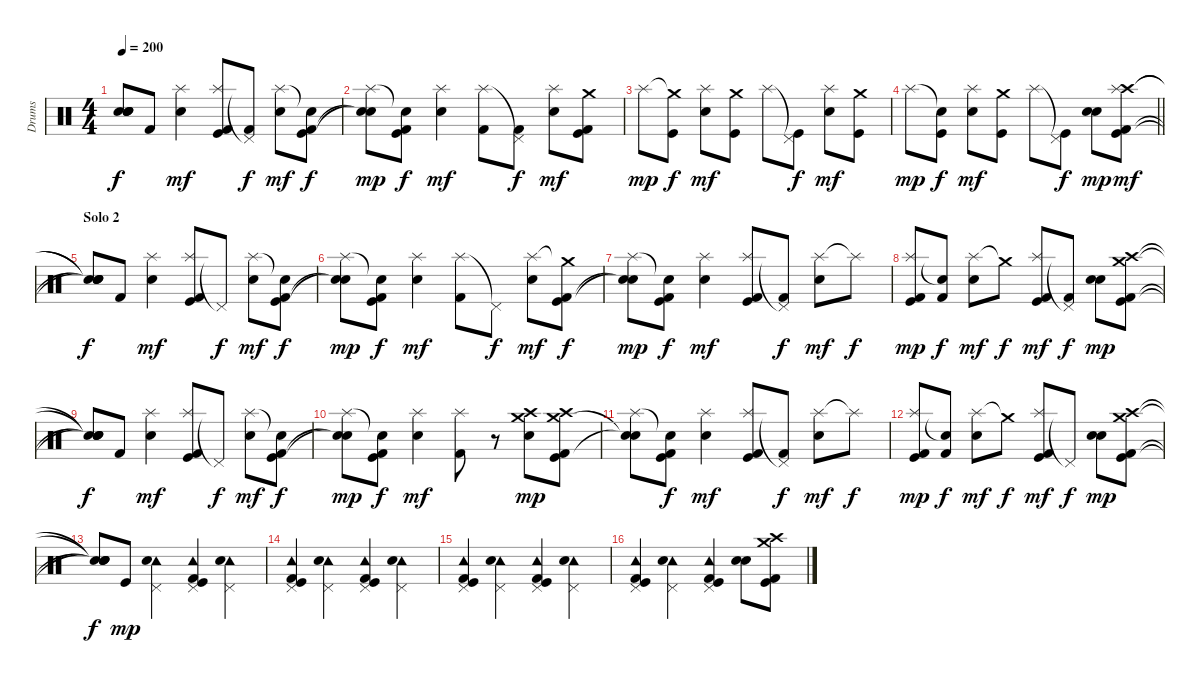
\track ("Drums" "Drums") {instrument percussion}
\staff {score}
\articulation defaults
\ts (4 4)
\tempo 200
\clef neutral
\ks c
("Snare (hit)"{t} "Snare (hit)"{t} "Snare (hit)"{t} "Snare (hit)"{t}).8{dy f} "Kick (hit) 2".8 ("Splash (hit)" "Snare (hit) 2").4{dy mf} ("Splash (hit)" "Kick (hit)" "Kick (hit) 2").8 ("Pedal Hi-Hat (hit)"{t} "Kick (hit) 2").8{dy f} ("Splash (hit)" "Snare (hit) 2").8{dy mf} ("Snare (hit)"{t} "Kick (hit)" "Kick (hit) 2").8{dy f} |
("Splash (hit)" "Snare (hit)"{t} "Snare (hit)"{t}).8{dy mp} ("Snare (hit)"{t} "Kick (hit)" "Kick (hit) 2").8{dy f} ("Splash (hit)" "Snare (hit) 2").4{dy mf} ("Splash (hit)" "Kick (hit) 2").8 ("Pedal Hi-Hat (hit)"{t} "Kick (hit) 2").8{dy f} ("Splash (hit)" "Snare (hit) 2").8{dy mf} ("Crash medium (hit)" "Kick (hit)" "Kick (hit) 2").8 |
"Splash (hit)".8{dy mp} ("Crash medium (hit)"{t} "Kick (hit)").8{dy f} ("Splash (hit)" "Snare (hit) 2").8{dy mf} ("Crash medium (hit)" "Kick (hit)").8 "Splash (hit)".8 ("Pedal Hi-Hat (hit)"{t} "Kick (hit)").8{dy f} ("Splash (hit)" "Snare (hit) 2").8{dy mf} ("Crash medium (hit)" "Kick (hit)").8 |
\barLineRight lightlight "Splash (hit)".8{dy mp}
("Snare (hit)"{t} "Kick (hit)").8{dy f} ("Splash (hit)" "Snare (hit) 2").8{dy mf} ("Crash medium (hit)" "Kick (hit)").8 "Splash (hit)".8 ("Pedal Hi-Hat (hit)"{t} "Kick (hit)").8{dy f} ("Snare (hit) 2" "Electric Snare (hit)").8{dy mp} ("Crash high (hit)" "Splash (hit)" "Kick (hit)" "Kick (hit) 2").8{dy mf} |
\section ("" "Solo 2")
("Snare (hit)"{t} "Snare (hit)"{t} "Snare (hit)"{t} "Snare (hit)"{t}).8{dy f} "Kick (hit) 2".8 ("Splash (hit)" "Snare (hit) 2").4{dy mf} ("Splash (hit)" "Kick (hit)" "Kick (hit) 2").8 "Pedal Hi-Hat (hit)"{t}.8{dy f} ("Splash (hit)" "Snare (hit) 2").8{dy mf} ("Snare (hit)"{t} "Kick (hit)" "Kick (hit) 2").8{dy f} |
("Splash (hit)" "Snare (hit)"{t} "Snare (hit)"{t}).8{dy mp} ("Snare (hit)"{t} "Kick (hit)" "Kick (hit) 2").8{dy f} ("Splash (hit)" "Snare (hit) 2").4{dy mf} ("Splash (hit)" "Kick (hit) 2").8 "Pedal Hi-Hat (hit)"{t}.8{dy f} ("Splash (hit)" "Snare (hit) 2").8{dy mf} ("Crash medium (hit)"{t} "Kick (hit)" "Kick (hit) 2").8{dy f} |
("Splash (hit)" "Snare (hit)"{t} "Snare (hit)"{t}).8{dy mp} ("Snare (hit)"{t} "Kick (hit)" "Kick (hit) 2").8{dy f} ("Splash (hit)" "Snare (hit) 2").4{dy mf} ("Splash (hit)" "Kick (hit)" "Kick (hit) 2").8 ("Pedal Hi-Hat (hit)"{t} "Kick (hit) 2").8{dy f} ("Splash (hit)" "Snare (hit) 2").8{dy mf} "Splash (hit)"{t}.8{dy f} |
("Splash (hit)" "Kick (hit)" "Kick (hit) 2").8{dy mp} ("Snare (hit)"{t} "Kick (hit) 2").8{dy f} ("Splash (hit)" "Snare (hit) 2").8{dy mf} "Crash medium (hit)"{t}.8{dy f} ("Splash (hit)" "Kick (hit)" "Kick (hit) 2").8{dy mf} ("Pedal Hi-Hat (hit)"{t} "Kick (hit) 2").8{dy f} ("Snare (hit) 2" "Electric Snare (hit)").8{dy mp} ("Crash high (hit)" "Crash medium (hit)" "Kick (hit)" "Kick (hit) 2").8 |
("Snare (hit)"{t} "Snare (hit)"{t} "Snare (hit)"{t} "Snare (hit)"{t}).8{dy f} "Kick (hit) 2".8 ("Splash (hit)" "Snare (hit) 2").4{dy mf} ("Splash (hit)" "Kick (hit)" "Kick (hit) 2").8 "Pedal Hi-Hat (hit)"{t}.8{dy f} ("Splash (hit)" "Snare (hit) 2").8{dy mf} ("Snare (hit)"{t} "Kick (hit)" "Kick (hit) 2").8{dy f} |
("Splash (hit)" "Snare (hit)"{t} "Snare (hit)"{t}).8{dy mp} ("Snare (hit)"{t} "Kick (hit)" "Kick (hit) 2").8{dy f} ("Splash (hit)" "Snare (hit) 2").4{dy mf} ("Splash (hit)" "Kick (hit) 2").8 r.8 ("Crash high (hit)" "Crash medium (hit)" "Snare (hit) 2").8{dy mp} ("Crash high (hit)" "Crash medium (hit)" "Kick (hit)" "Kick (hit) 2").8 |
("Splash (hit)" "Snare (hit)"{t} "Snare (hit)"{t}).8 ("Snare (hit)"{t} "Kick (hit)" "Kick (hit) 2").8{dy f} ("Splash (hit)" "Snare (hit) 2").4{dy mf} ("Splash (hit)" "Kick (hit)" "Kick (hit) 2").8 ("Pedal Hi-Hat (hit)"{t} "Kick (hit) 2").8{dy f} ("Splash (hit)" "Snare (hit) 2").8{dy mf} "Splash (hit)"{t}.8{dy f} |
("Splash (hit)" "Kick (hit)" "Kick (hit) 2").8{dy mp} ("Snare (hit)"{t} "Kick (hit) 2").8{dy f} ("Splash (hit)" "Snare (hit) 2").8{dy mf} "Crash medium (hit)"{t}.8{dy f} ("Splash (hit)" "Kick (hit)" "Kick (hit) 2").8{dy mf} "Pedal Hi-Hat (hit)"{t}.8{dy f} ("Snare (hit) 2" "Electric Snare (hit)").8{dy mp} ("Crash high (hit)" "Crash medium (hit)" "Kick (hit)" "Kick (hit) 2").8 |
("Snare (hit)"{t} "Snare (hit)"{t} "Snare (hit)"{t} "Snare (hit)"{t}).8{dy f} "Kick (hit)".8{dy mp} ("Tambourine (hit)" "Pedal Hi-Hat (hit)" "Snare (hit) 2").4 ("Tambourine (hit)" "Pedal Hi-Hat (hit)" "Kick (hit)" "Kick (hit) 2").4 ("Tambourine (hit)" "Pedal Hi-Hat (hit)" "Snare (hit) 2").4 |
("Tambourine (hit)" "Pedal Hi-Hat (hit)" "Kick (hit)" "Kick (hit) 2").4 ("Tambourine (hit)" "Pedal Hi-Hat (hit)" "Snare (hit) 2").4 ("Tambourine (hit)" "Pedal Hi-Hat (hit)" "Kick (hit)" "Kick (hit) 2").4 ("Tambourine (hit)" "Pedal Hi-Hat (hit)" "Snare (hit) 2").4 |
("Tambourine (hit)" "Pedal Hi-Hat (hit)" "Kick (hit)" "Kick (hit) 2").4 ("Tambourine (hit)" "Pedal Hi-Hat (hit)" "Snare (hit) 2").4 ("Tambourine (hit)" "Pedal Hi-Hat (hit)" "Kick (hit)" "Kick (hit) 2").4 ("Tambourine (hit)" "Pedal Hi-Hat (hit)" "Snare (hit) 2").4 |
("Tambourine (hit)" "Pedal Hi-Hat (hit)" "Kick (hit)" "Kick (hit) 2").4 ("Tambourine (hit)" "Pedal Hi-Hat (hit)" "Snare (hit) 2").4 ("Tambourine (hit)" "Pedal Hi-Hat (hit)" "Kick (hit)" "Kick (hit) 2").4 ("Snare (hit) 2" "Electric Snare (hit)").8 ("Crash high (hit)" "Crash medium (hit)" "Kick (hit)" "Kick (hit) 2").8
